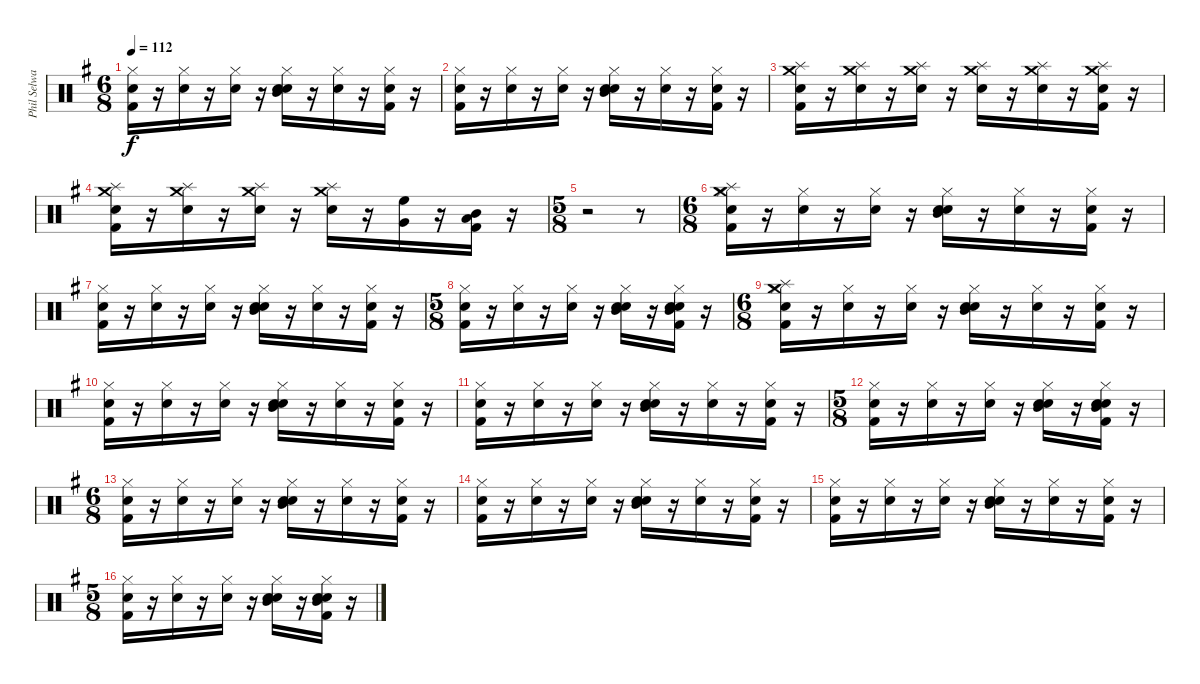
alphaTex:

\track ("Phil Selway" "Phil Selwa") {instrument percussion}
\staff {score}
\articulation defaults
\ts (6 8)
\tempo 112
\clef neutral
\ks g
("Hi-Hat (closed)" "Kick (hit) 2" "Snare (hit) 2").16{dy f} r.16 ("Hi-Hat (closed)" "Snare (hit) 2").16 r.16 ("Hi-Hat (closed)" "Snare (hit) 2").16 r.16 ("Hi-Hat (closed)" "Snare (hit) 2" "Mid Tom (hit)" "Electric Snare (hit)").16 r.16 ("Hi-Hat (closed)" "Snare (hit) 2").16 r.16 ("Hi-Hat (closed)" "Snare (hit) 2" "Kick (hit) 2").16 r.16 |
("Hi-Hat (closed)" "Kick (hit) 2" "Snare (hit) 2").16 r.16 ("Hi-Hat (closed)" "Snare (hit) 2").16 r.16 ("Hi-Hat (closed)" "Snare (hit) 2").16 r.16 ("Hi-Hat (closed)" "Snare (hit) 2" "Mid Tom (hit)" "Electric Snare (hit)").16 r.16 ("Hi-Hat (closed)" "Snare (hit) 2").16 r.16 ("Hi-Hat (closed)" "Snare (hit) 2" "Kick (hit) 2").16 r.16 |
("Crash medium (hit)" "Kick (hit) 2" "Snare (hit) 2" "Splash (hit)").16 r.16 ("Crash medium (hit)" "Snare (hit) 2" "Splash (hit)").16 r.16 ("Crash medium (hit)" "Snare (hit) 2" "Splash (hit)").16 r.16 ("Crash medium (hit)" "Snare (hit) 2" "Splash (hit)").16 r.16 ("Crash medium (hit)" "Snare (hit) 2" "Splash (hit)").16 r.16 ("Crash medium (hit)" "Snare (hit) 2" "Kick (hit) 2" "Splash (hit)").16 r.16 |
("Crash medium (hit)" "Kick (hit) 2" "Snare (hit) 2" "Splash (hit)").16 r.16 ("Crash medium (hit)" "Snare (hit) 2" "Splash (hit)").16 r.16 ("Crash medium (hit)" "Snare (hit) 2" "Splash (hit)").16 r.16 ("Crash medium (hit)" "Snare (hit) 2" "Splash (hit)").16 r.16 ("Very Low Tom (hit)" "High Floor Tom (hit)").16 r.16 ("Kick (hit) 2" "Low Tom (hit)" "Mid Tom (hit)").16 r.16 |
\ts (5 8)
r.2 r.8 |
\ts (6 8)
("Hi-Hat (closed)" "Kick (hit) 2" "Snare (hit) 2" "Splash (hit)" "Crash medium (hit)").16 r.16 ("Hi-Hat (closed)" "Snare (hit) 2").16 r.16 ("Hi-Hat (closed)" "Snare (hit) 2").16 r.16 ("Hi-Hat (closed)" "Snare (hit) 2" "Mid Tom (hit)" "Electric Snare (hit)").16 r.16 ("Hi-Hat (closed)" "Snare (hit) 2").16 r.16 ("Hi-Hat (closed)" "Snare (hit) 2" "Kick (hit) 2").16 r.16 |
("Hi-Hat (closed)" "Kick (hit) 2" "Snare (hit) 2").16 r.16 ("Hi-Hat (closed)" "Snare (hit) 2").16 r.16 ("Hi-Hat (closed)" "Snare (hit) 2").16 r.16 ("Hi-Hat (closed)" "Snare (hit) 2" "Mid Tom (hit)" "Electric Snare (hit)").16 r.16 ("Hi-Hat (closed)" "Snare (hit) 2").16 r.16 ("Hi-Hat (closed)" "Snare (hit) 2" "Kick (hit) 2").16 r.16 |
\ts (5 8)
("Hi-Hat (closed)" "Snare (hit) 2" "Kick (hit) 2").16 r.16 ("Hi-Hat (closed)" "Snare (hit) 2").16 r.16 ("Hi-Hat (closed)" "Snare (hit) 2").16 r.16 ("Hi-Hat (closed)" "Snare (hit) 2" "Mid Tom (hit)" "Electric Snare (hit)").16 r.16 ("Hi-Hat (closed)" "Snare (hit) 2" "Kick (hit) 2" "Mid Tom (hit)" "Electric Snare (hit)").16 r.16 |
\ts (6 8)
("Hi-Hat (closed)" "Kick (hit) 2" "Snare (hit) 2" "Splash (hit)" "Crash medium (hit)").16 r.16 ("Hi-Hat (closed)" "Snare (hit) 2").16 r.16 ("Hi-Hat (closed)" "Snare (hit) 2").16 r.16 ("Hi-Hat (closed)" "Snare (hit) 2" "Mid Tom (hit)" "Electric Snare (hit)").16 r.16 ("Hi-Hat (closed)" "Snare (hit) 2").16 r.16 ("Hi-Hat (closed)" "Snare (hit) 2" "Kick (hit) 2").16 r.16 |
("Hi-Hat (closed)" "Kick (hit) 2" "Snare (hit) 2").16 r.16 ("Hi-Hat (closed)" "Snare (hit) 2").16 r.16 ("Hi-Hat (closed)" "Snare (hit) 2").16 r.16 ("Hi-Hat (closed)" "Snare (hit) 2" "Mid Tom (hit)" "Electric Snare (hit)").16 r.16 ("Hi-Hat (closed)" "Snare (hit) 2").16 r.16 ("Hi-Hat (closed)" "Snare (hit) 2" "Kick (hit) 2").16 r.16 |
("Hi-Hat (closed)" "Kick (hit) 2" "Snare (hit) 2").16 r.16 ("Hi-Hat (closed)" "Snare (hit) 2").16 r.16 ("Hi-Hat (closed)" "Snare (hit) 2").16 r.16 ("Hi-Hat (closed)" "Snare (hit) 2" "Mid Tom (hit)" "Electric Snare (hit)").16 r.16 ("Hi-Hat (closed)" "Snare (hit) 2").16 r.16 ("Hi-Hat (closed)" "Snare (hit) 2" "Kick (hit) 2").16 r.16 |
\ts (5 8)
("Hi-Hat (closed)" "Snare (hit) 2" "Kick (hit) 2").16 r.16 ("Hi-Hat (closed)" "Snare (hit) 2").16 r.16 ("Hi-Hat (closed)" "Snare (hit) 2").16 r.16 ("Hi-Hat (closed)" "Snare (hit) 2" "Mid Tom (hit)" "Electric Snare (hit)").16 r.16 ("Hi-Hat (closed)" "Snare (hit) 2" "Kick (hit) 2" "Mid Tom (hit)" "Electric Snare (hit)").16 r.16 |
\ts (6 8)
("Hi-Hat (closed)" "Kick (hit) 2" "Snare (hit) 2").16 r.16 ("Hi-Hat (closed)" "Snare (hit) 2").16 r.16 ("Hi-Hat (closed)" "Snare (hit) 2").16 r.16 ("Hi-Hat (closed)" "Snare (hit) 2" "Mid Tom (hit)" "Electric Snare (hit)").16 r.16 ("Hi-Hat (closed)" "Snare (hit) 2").16 r.16 ("Hi-Hat (closed)" "Snare (hit) 2" "Kick (hit) 2").16 r.16 |
("Hi-Hat (closed)" "Kick (hit) 2" "Snare (hit) 2").16 r.16 ("Hi-Hat (closed)" "Snare (hit) 2").16 r.16 ("Hi-Hat (closed)" "Snare (hit) 2").16 r.16 ("Hi-Hat (closed)" "Snare (hit) 2" "Mid Tom (hit)" "Electric Snare (hit)").16 r.16 ("Hi-Hat (closed)" "Snare (hit) 2").16 r.16 ("Hi-Hat (closed)" "Snare (hit) 2" "Kick (hit) 2").16 r.16 |
("Hi-Hat (closed)" "Kick (hit) 2" "Snare (hit) 2").16 r.16 ("Hi-Hat (closed)" "Snare (hit) 2").16 r.16 ("Hi-Hat (closed)" "Snare (hit) 2").16 r.16 ("Hi-Hat (closed)" "Snare (hit) 2" "Mid Tom (hit)" "Electric Snare (hit)").16 r.16 ("Hi-Hat (closed)" "Snare (hit) 2").16 r.16 ("Hi-Hat (closed)" "Snare (hit) 2" "Kick (hit) 2").16 r.16 |
\ts (5 8)
("Hi-Hat (closed)" "Snare (hit) 2" "Kick (hit) 2").16 r.16 ("Hi-Hat (closed)" "Snare (hit) 2").16 r.16 ("Hi-Hat (closed)" "Snare (hit) 2").16 r.16 ("Hi-Hat (closed)" "Snare (hit) 2" "Mid Tom (hit)" "Electric Snare (hit)").16 r.16 ("Hi-Hat (closed)" "Snare (hit) 2" "Kick (hit) 2" "Mid Tom (hit)" "Electric Snare (hit)").16 r.16
